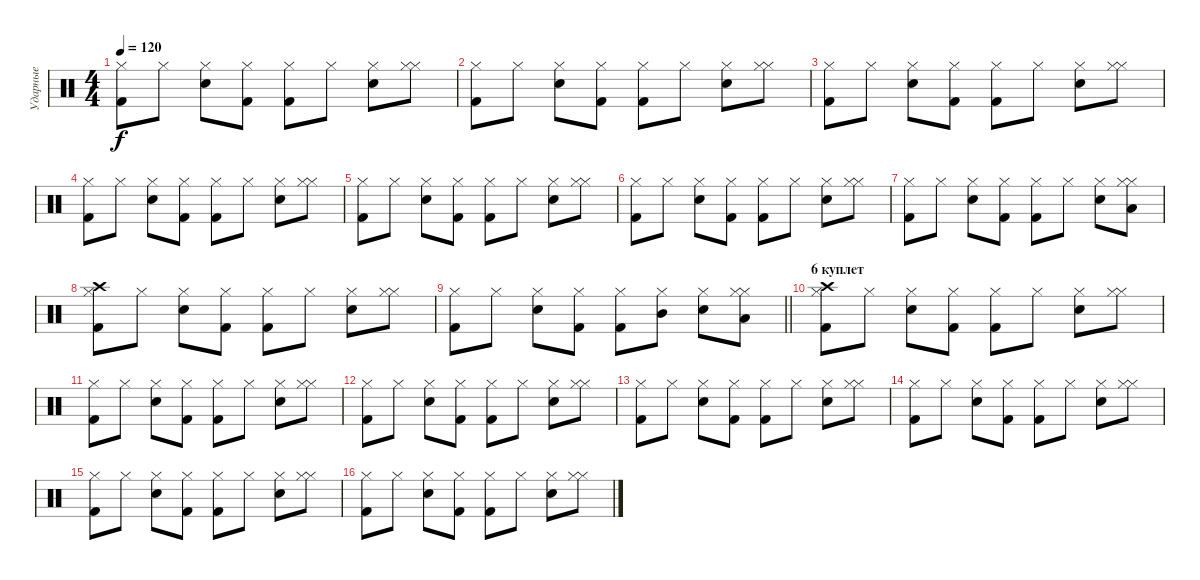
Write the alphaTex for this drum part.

\track ("Ударные" "Ударные") {instrument percussion}
\staff {score}
\articulation defaults
\ts (4 4)
\tempo 120
\clef neutral
\ks c
("Kick (hit) 2" "Hi-Hat (closed)").8{dy f} "Hi-Hat (closed)".8 ("Electric Snare (hit)" "Hi-Hat (closed)").8 ("Kick (hit) 2" "Hi-Hat (closed)").8 ("Kick (hit) 2" "Hi-Hat (closed)").8 "Hi-Hat (closed)".8 ("Electric Snare (hit)" "Hi-Hat (closed)").8 ("Hi-Hat (closed)" "Hi-Hat (closed)").8 |
("Kick (hit) 2" "Hi-Hat (closed)").8 "Hi-Hat (closed)".8 ("Electric Snare (hit)" "Hi-Hat (closed)").8 ("Kick (hit) 2" "Hi-Hat (closed)").8 ("Kick (hit) 2" "Hi-Hat (closed)").8 "Hi-Hat (closed)".8 ("Electric Snare (hit)" "Hi-Hat (closed)").8 ("Hi-Hat (closed)" "Hi-Hat (closed)").8 |
("Kick (hit) 2" "Hi-Hat (closed)").8 "Hi-Hat (closed)".8 ("Electric Snare (hit)" "Hi-Hat (closed)").8 ("Kick (hit) 2" "Hi-Hat (closed)").8 ("Kick (hit) 2" "Hi-Hat (closed)").8 "Hi-Hat (closed)".8 ("Electric Snare (hit)" "Hi-Hat (closed)").8 ("Hi-Hat (closed)" "Hi-Hat (closed)").8 |
("Kick (hit) 2" "Hi-Hat (closed)").8 "Hi-Hat (closed)".8 ("Electric Snare (hit)" "Hi-Hat (closed)").8 ("Kick (hit) 2" "Hi-Hat (closed)").8 ("Kick (hit) 2" "Hi-Hat (closed)").8 "Hi-Hat (closed)".8 ("Electric Snare (hit)" "Hi-Hat (closed)").8 ("Hi-Hat (closed)" "Hi-Hat (closed)").8 |
("Kick (hit) 2" "Hi-Hat (closed)").8 "Hi-Hat (closed)".8 ("Electric Snare (hit)" "Hi-Hat (closed)").8 ("Kick (hit) 2" "Hi-Hat (closed)").8 ("Kick (hit) 2" "Hi-Hat (closed)").8 "Hi-Hat (closed)".8 ("Electric Snare (hit)" "Hi-Hat (closed)").8 ("Hi-Hat (closed)" "Hi-Hat (closed)").8 |
("Kick (hit) 2" "Hi-Hat (closed)").8 "Hi-Hat (closed)".8 ("Electric Snare (hit)" "Hi-Hat (closed)").8 ("Kick (hit) 2" "Hi-Hat (closed)").8 ("Kick (hit) 2" "Hi-Hat (closed)").8 "Hi-Hat (closed)".8 ("Electric Snare (hit)" "Hi-Hat (closed)").8 ("Hi-Hat (closed)" "Hi-Hat (closed)").8 |
("Kick (hit) 2" "Hi-Hat (closed)").8 "Hi-Hat (closed)".8 ("Electric Snare (hit)" "Hi-Hat (closed)").8 ("Kick (hit) 2" "Hi-Hat (closed)").8 ("Kick (hit) 2" "Hi-Hat (closed)").8 "Hi-Hat (closed)".8 ("Electric Snare (hit)" "Hi-Hat (closed)").8 ("Hi-Hat (closed)" "Hi-Hat (closed)" "Low Floor Tom (hit)").8 |
("Kick (hit) 2" "Hi-Hat (closed)" "Crash high (hit)").8 "Hi-Hat (closed)".8 ("Electric Snare (hit)" "Hi-Hat (closed)").8 ("Kick (hit) 2" "Hi-Hat (closed)").8 ("Kick (hit) 2" "Hi-Hat (closed)").8 "Hi-Hat (closed)".8 ("Electric Snare (hit)" "Hi-Hat (closed)").8 ("Hi-Hat (closed)" "Hi-Hat (closed)").8 |
\barLineRight lightlight
("Kick (hit) 2" "Hi-Hat (closed)").8 "Hi-Hat (closed)".8 ("Electric Snare (hit)" "Hi-Hat (closed)").8 ("Kick (hit) 2" "Hi-Hat (closed)").8 ("Kick (hit) 2" "Hi-Hat (closed)").8 ("Hi-Hat (closed)" "Mid Tom (hit)").8 ("Electric Snare (hit)" "Hi-Hat (closed)").8 ("Hi-Hat (closed)" "Hi-Hat (closed)" "Low Tom (hit)").8 |
\section ("" "6 куплет")
("Kick (hit) 2" "Hi-Hat (closed)" "Crash high (hit)").8 "Hi-Hat (closed)".8 ("Electric Snare (hit)" "Hi-Hat (closed)").8 ("Kick (hit) 2" "Hi-Hat (closed)").8 ("Kick (hit) 2" "Hi-Hat (closed)").8 "Hi-Hat (closed)".8 ("Electric Snare (hit)" "Hi-Hat (closed)").8 ("Hi-Hat (closed)" "Hi-Hat (closed)").8 |
("Kick (hit) 2" "Hi-Hat (closed)").8 "Hi-Hat (closed)".8 ("Electric Snare (hit)" "Hi-Hat (closed)").8 ("Kick (hit) 2" "Hi-Hat (closed)").8 ("Kick (hit) 2" "Hi-Hat (closed)").8 "Hi-Hat (closed)".8 ("Electric Snare (hit)" "Hi-Hat (closed)").8 ("Hi-Hat (closed)" "Hi-Hat (closed)").8 |
("Kick (hit) 2" "Hi-Hat (closed)").8 "Hi-Hat (closed)".8 ("Electric Snare (hit)" "Hi-Hat (closed)").8 ("Kick (hit) 2" "Hi-Hat (closed)").8 ("Kick (hit) 2" "Hi-Hat (closed)").8 "Hi-Hat (closed)".8 ("Electric Snare (hit)" "Hi-Hat (closed)").8 ("Hi-Hat (closed)" "Hi-Hat (closed)").8 |
("Kick (hit) 2" "Hi-Hat (closed)").8 "Hi-Hat (closed)".8 ("Electric Snare (hit)" "Hi-Hat (closed)").8 ("Kick (hit) 2" "Hi-Hat (closed)").8 ("Kick (hit) 2" "Hi-Hat (closed)").8 "Hi-Hat (closed)".8 ("Electric Snare (hit)" "Hi-Hat (closed)").8 ("Hi-Hat (closed)" "Hi-Hat (closed)").8 |
("Kick (hit) 2" "Hi-Hat (closed)").8 "Hi-Hat (closed)".8 ("Electric Snare (hit)" "Hi-Hat (closed)").8 ("Kick (hit) 2" "Hi-Hat (closed)").8 ("Kick (hit) 2" "Hi-Hat (closed)").8 "Hi-Hat (closed)".8 ("Electric Snare (hit)" "Hi-Hat (closed)").8 ("Hi-Hat (closed)" "Hi-Hat (closed)").8 |
("Kick (hit) 2" "Hi-Hat (closed)").8 "Hi-Hat (closed)".8 ("Electric Snare (hit)" "Hi-Hat (closed)").8 ("Kick (hit) 2" "Hi-Hat (closed)").8 ("Kick (hit) 2" "Hi-Hat (closed)").8 "Hi-Hat (closed)".8 ("Electric Snare (hit)" "Hi-Hat (closed)").8 ("Hi-Hat (closed)" "Hi-Hat (closed)").8 |
("Kick (hit) 2" "Hi-Hat (closed)").8 "Hi-Hat (closed)".8 ("Electric Snare (hit)" "Hi-Hat (closed)").8 ("Kick (hit) 2" "Hi-Hat (closed)").8 ("Kick (hit) 2" "Hi-Hat (closed)").8 "Hi-Hat (closed)".8 ("Electric Snare (hit)" "Hi-Hat (closed)").8 ("Hi-Hat (closed)" "Hi-Hat (closed)").8
